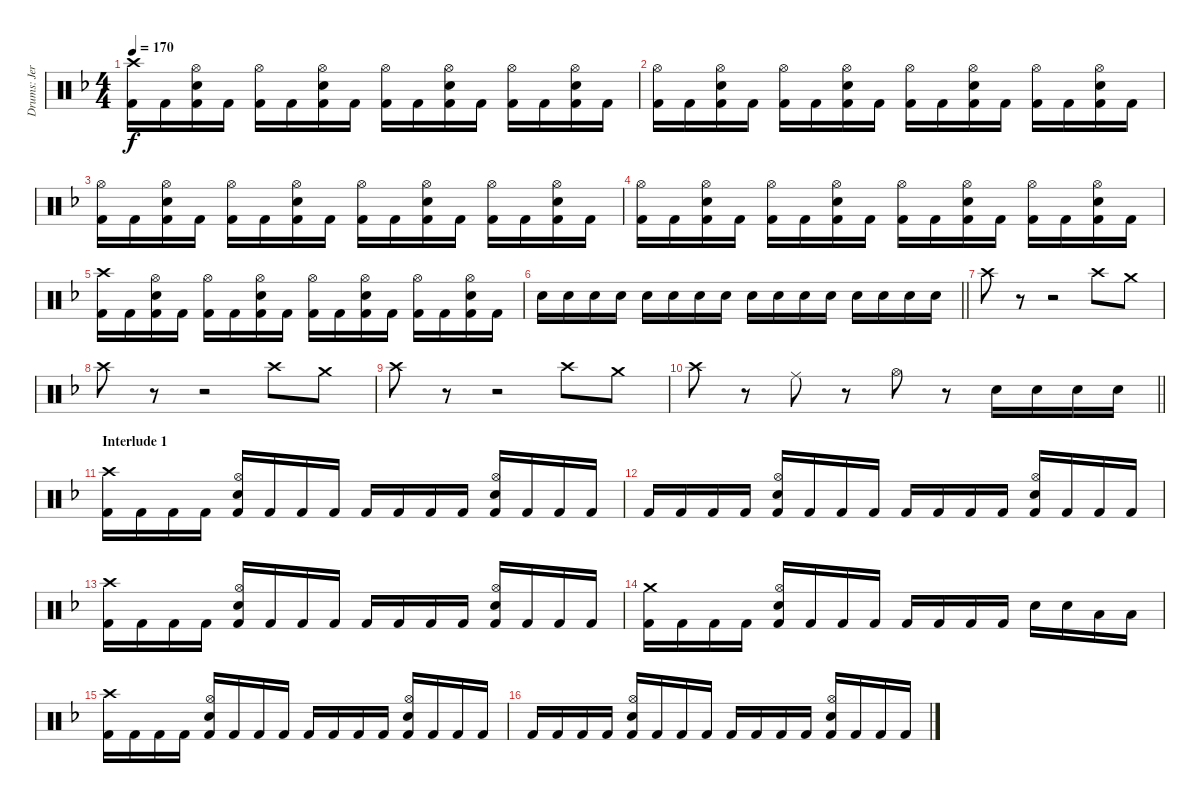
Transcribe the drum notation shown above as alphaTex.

\track ("Drums: Jere Luokkamäki" "Drums: Jer") {instrument percussion}
\staff {score}
\articulation defaults
\ts (4 4)
\tempo 170
\clef neutral
\ks dminor
("Crash high (hit)" "Kick (hit) 2").16{dy f} "Kick (hit) 2".16 ("Hi-Hat (open)" "Electric Snare (hit)" "Kick (hit) 2").16 "Kick (hit) 2".16 ("Hi-Hat (open)" "Kick (hit) 2").16 "Kick (hit) 2".16 ("Hi-Hat (open)" "Electric Snare (hit)" "Kick (hit) 2").16 "Kick (hit) 2".16 ("Hi-Hat (open)" "Kick (hit) 2").16 "Kick (hit) 2".16 ("Hi-Hat (open)" "Electric Snare (hit)" "Kick (hit) 2").16 "Kick (hit) 2".16 ("Hi-Hat (open)" "Kick (hit) 2").16 "Kick (hit) 2".16 ("Hi-Hat (open)" "Electric Snare (hit)" "Kick (hit) 2").16 "Kick (hit) 2".16 |
("Hi-Hat (open)" "Kick (hit) 2").16 "Kick (hit) 2".16 ("Hi-Hat (open)" "Electric Snare (hit)" "Kick (hit) 2").16 "Kick (hit) 2".16 ("Hi-Hat (open)" "Kick (hit) 2").16 "Kick (hit) 2".16 ("Hi-Hat (open)" "Electric Snare (hit)" "Kick (hit) 2").16 "Kick (hit) 2".16 ("Hi-Hat (open)" "Kick (hit) 2").16 "Kick (hit) 2".16 ("Hi-Hat (open)" "Electric Snare (hit)" "Kick (hit) 2").16 "Kick (hit) 2".16 ("Hi-Hat (open)" "Kick (hit) 2").16 "Kick (hit) 2".16 ("Hi-Hat (open)" "Electric Snare (hit)" "Kick (hit) 2").16 "Kick (hit) 2".16 |
("Hi-Hat (open)" "Kick (hit) 2").16 "Kick (hit) 2".16 ("Hi-Hat (open)" "Electric Snare (hit)" "Kick (hit) 2").16 "Kick (hit) 2".16 ("Hi-Hat (open)" "Kick (hit) 2").16 "Kick (hit) 2".16 ("Hi-Hat (open)" "Electric Snare (hit)" "Kick (hit) 2").16 "Kick (hit) 2".16 ("Hi-Hat (open)" "Kick (hit) 2").16 "Kick (hit) 2".16 ("Hi-Hat (open)" "Electric Snare (hit)" "Kick (hit) 2").16 "Kick (hit) 2".16 ("Hi-Hat (open)" "Kick (hit) 2").16 "Kick (hit) 2".16 ("Hi-Hat (open)" "Electric Snare (hit)" "Kick (hit) 2").16 "Kick (hit) 2".16 |
("Hi-Hat (open)" "Kick (hit) 2").16 "Kick (hit) 2".16 ("Hi-Hat (open)" "Electric Snare (hit)" "Kick (hit) 2").16 "Kick (hit) 2".16 ("Hi-Hat (open)" "Kick (hit) 2").16 "Kick (hit) 2".16 ("Hi-Hat (open)" "Electric Snare (hit)" "Kick (hit) 2").16 "Kick (hit) 2".16 ("Hi-Hat (open)" "Kick (hit) 2").16 "Kick (hit) 2".16 ("Hi-Hat (open)" "Electric Snare (hit)" "Kick (hit) 2").16 "Kick (hit) 2".16 ("Hi-Hat (open)" "Kick (hit) 2").16 "Kick (hit) 2".16 ("Hi-Hat (open)" "Electric Snare (hit)" "Kick (hit) 2").16 "Kick (hit) 2".16 |
("Crash high (hit)" "Kick (hit) 2").16 "Kick (hit) 2".16 ("Hi-Hat (open)" "Electric Snare (hit)" "Kick (hit) 2").16 "Kick (hit) 2".16 ("Hi-Hat (open)" "Kick (hit) 2").16 "Kick (hit) 2".16 ("Hi-Hat (open)" "Electric Snare (hit)" "Kick (hit) 2").16 "Kick (hit) 2".16 ("Hi-Hat (open)" "Kick (hit) 2").16 "Kick (hit) 2".16 ("Hi-Hat (open)" "Electric Snare (hit)" "Kick (hit) 2").16 "Kick (hit) 2".16 ("Hi-Hat (open)" "Kick (hit) 2").16 "Kick (hit) 2".16 ("Hi-Hat (open)" "Electric Snare (hit)" "Kick (hit) 2").16 "Kick (hit) 2".16 |
\barLineRight lightlight "Electric Snare (hit)".16 "Electric Snare (hit)".16 "Electric Snare (hit)".16 "Electric Snare (hit)".16 "Electric Snare (hit)".16 "Electric Snare (hit)".16 "Electric Snare (hit)".16 "Electric Snare (hit)".16 "Electric Snare (hit)".16 "Electric Snare (hit)".16 "Electric Snare (hit)".16 "Electric Snare (hit)".16 "Electric Snare (hit)".16 "Electric Snare (hit)".16 "Electric Snare (hit)".16 "Electric Snare (hit)".16
|
"Crash high (hit)".8 r.8 r.2 "Crash high (hit)".8 "Crash medium (hit)".8 |
"Crash high (hit)".8 r.8 r.2 "Crash high (hit)".8 "Crash medium (hit)".8 |
"Crash high (hit)".8 r.8 r.2 "Crash high (hit)".8 "Crash medium (hit)".8 |
\barLineRight lightlight "Crash high (hit)".8
r.8 "Ride (middle)".8 r.8 "Hi-Hat (open)".8 r.8 "Electric Snare (hit)".16 "Electric Snare (hit)".16 "Electric Snare (hit)".16 "Electric Snare (hit)".16 |
\section ("" "Interlude 1")
("Crash high (hit)" "Kick (hit) 2").16 "Kick (hit) 2".16 "Kick (hit) 2".16 "Kick (hit) 2".16 ("Hi-Hat (open)" "Electric Snare (hit)" "Kick (hit) 2").16 "Kick (hit) 2".16 "Kick (hit) 2".16 "Kick (hit) 2".16 "Kick (hit) 2".16 "Kick (hit) 2".16 "Kick (hit) 2".16 "Kick (hit) 2".16 ("Hi-Hat (open)" "Electric Snare (hit)" "Kick (hit) 2").16 "Kick (hit) 2".16 "Kick (hit) 2".16 "Kick (hit) 2".16 |
"Kick (hit) 2".16 "Kick (hit) 2".16 "Kick (hit) 2".16 "Kick (hit) 2".16 ("Hi-Hat (open)" "Electric Snare (hit)" "Kick (hit) 2").16 "Kick (hit) 2".16 "Kick (hit) 2".16 "Kick (hit) 2".16 "Kick (hit) 2".16 "Kick (hit) 2".16 "Kick (hit) 2".16 "Kick (hit) 2".16 ("Hi-Hat (open)" "Electric Snare (hit)" "Kick (hit) 2").16 "Kick (hit) 2".16 "Kick (hit) 2".16 "Kick (hit) 2".16 |
("Crash high (hit)" "Kick (hit) 2").16 "Kick (hit) 2".16 "Kick (hit) 2".16 "Kick (hit) 2".16 ("Hi-Hat (open)" "Electric Snare (hit)" "Kick (hit) 2").16 "Kick (hit) 2".16 "Kick (hit) 2".16 "Kick (hit) 2".16 "Kick (hit) 2".16 "Kick (hit) 2".16 "Kick (hit) 2".16 "Kick (hit) 2".16 ("Hi-Hat (open)" "Electric Snare (hit)" "Kick (hit) 2").16 "Kick (hit) 2".16 "Kick (hit) 2".16 "Kick (hit) 2".16 |
("Crash medium (hit)" "Kick (hit) 2").16 "Kick (hit) 2".16 "Kick (hit) 2".16 "Kick (hit) 2".16 ("Hi-Hat (open)" "Electric Snare (hit)" "Kick (hit) 2").16 "Kick (hit) 2".16 "Kick (hit) 2".16 "Kick (hit) 2".16 "Kick (hit) 2".16 "Kick (hit) 2".16 "Kick (hit) 2".16 "Kick (hit) 2".16 "Electric Snare (hit)".16 "Electric Snare (hit)".16 "Low Tom (hit)".16 "Low Tom (hit)".16 |
("Crash high (hit)" "Kick (hit) 2").16 "Kick (hit) 2".16 "Kick (hit) 2".16 "Kick (hit) 2".16 ("Hi-Hat (open)" "Electric Snare (hit)" "Kick (hit) 2").16 "Kick (hit) 2".16 "Kick (hit) 2".16 "Kick (hit) 2".16 "Kick (hit) 2".16 "Kick (hit) 2".16 "Kick (hit) 2".16 "Kick (hit) 2".16 ("Hi-Hat (open)" "Electric Snare (hit)" "Kick (hit) 2").16 "Kick (hit) 2".16 "Kick (hit) 2".16 "Kick (hit) 2".16 |
"Kick (hit) 2".16 "Kick (hit) 2".16 "Kick (hit) 2".16 "Kick (hit) 2".16 ("Hi-Hat (open)" "Electric Snare (hit)" "Kick (hit) 2").16 "Kick (hit) 2".16 "Kick (hit) 2".16 "Kick (hit) 2".16 "Kick (hit) 2".16 "Kick (hit) 2".16 "Kick (hit) 2".16 "Kick (hit) 2".16 ("Hi-Hat (open)" "Electric Snare (hit)" "Kick (hit) 2").16 "Kick (hit) 2".16 "Kick (hit) 2".16 "Kick (hit) 2".16
